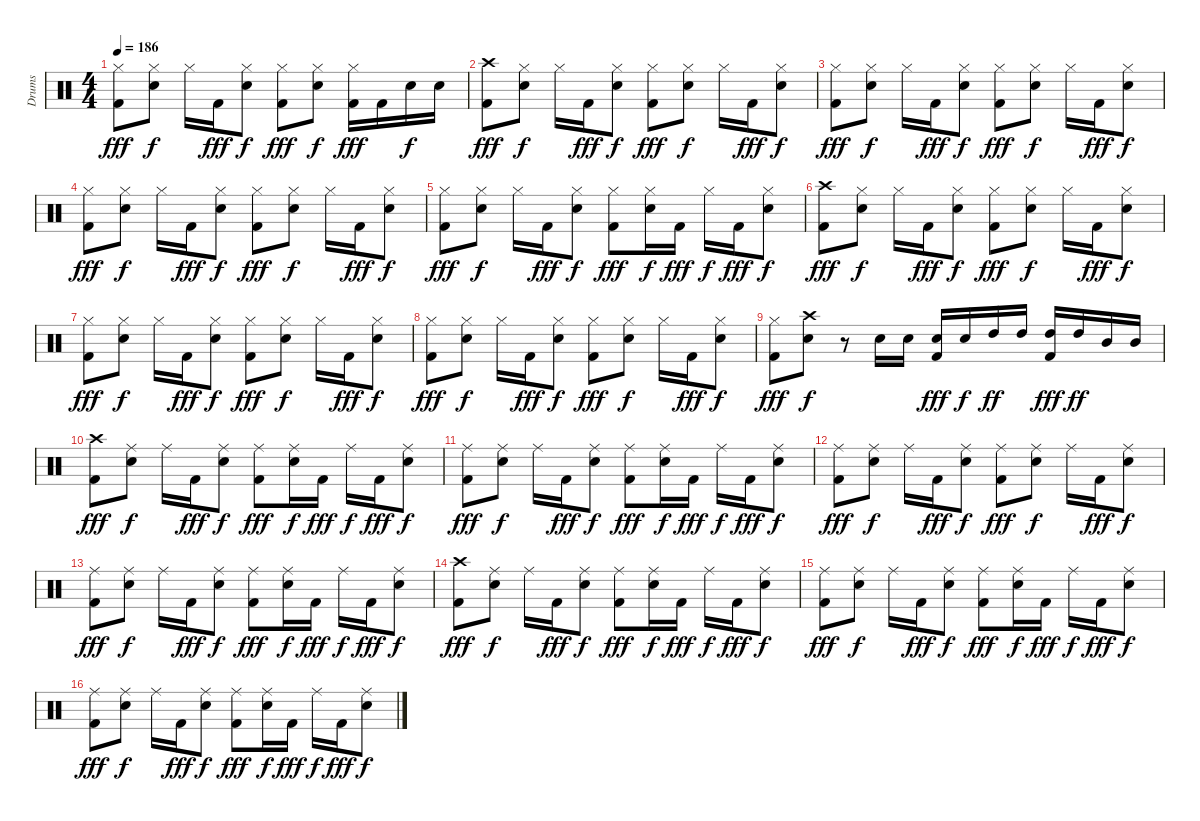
\track ("Drums" "Drums") {instrument percussion}
\staff {score}
\articulation defaults
\ts (4 4)
\tempo 186
\clef neutral
\ks c
("Hi-Hat (closed)" "Kick (hit) 2").8{dy fff} ("Hi-Hat (closed)" "Electric Snare (hit)").8{dy f} "Hi-Hat (closed)".16 "Kick (hit) 2".16{dy fff} ("Hi-Hat (closed)" "Electric Snare (hit)").8{dy f} ("Hi-Hat (closed)" "Kick (hit) 2").8{dy fff} ("Hi-Hat (closed)" "Electric Snare (hit)").8{dy f} ("Hi-Hat (closed)" "Kick (hit) 2").16{dy fff} "Kick (hit) 2".16 "Electric Snare (hit)".16{dy f} "Electric Snare (hit)".16 |
("Crash high (hit)" "Kick (hit) 2").8{dy fff} ("Hi-Hat (closed)" "Electric Snare (hit)").8{dy f} "Hi-Hat (closed)".16 "Kick (hit) 2".16{dy fff} ("Hi-Hat (closed)" "Electric Snare (hit)").8{dy f} ("Hi-Hat (closed)" "Kick (hit) 2").8{dy fff} ("Hi-Hat (closed)" "Electric Snare (hit)").8{dy f} "Hi-Hat (closed)".16 "Kick (hit) 2".16{dy fff} ("Hi-Hat (closed)" "Electric Snare (hit)").8{dy f} |
("Hi-Hat (closed)" "Kick (hit) 2").8{dy fff} ("Hi-Hat (closed)" "Electric Snare (hit)").8{dy f} "Hi-Hat (closed)".16 "Kick (hit) 2".16{dy fff} ("Hi-Hat (closed)" "Electric Snare (hit)").8{dy f} ("Hi-Hat (closed)" "Kick (hit) 2").8{dy fff} ("Hi-Hat (closed)" "Electric Snare (hit)").8{dy f} "Hi-Hat (closed)".16 "Kick (hit) 2".16{dy fff} ("Hi-Hat (closed)" "Electric Snare (hit)").8{dy f} |
("Hi-Hat (closed)" "Kick (hit) 2").8{dy fff} ("Hi-Hat (closed)" "Electric Snare (hit)").8{dy f} "Hi-Hat (closed)".16 "Kick (hit) 2".16{dy fff} ("Hi-Hat (closed)" "Electric Snare (hit)").8{dy f} ("Hi-Hat (closed)" "Kick (hit) 2").8{dy fff} ("Hi-Hat (closed)" "Electric Snare (hit)").8{dy f} "Hi-Hat (closed)".16 "Kick (hit) 2".16{dy fff} ("Hi-Hat (closed)" "Electric Snare (hit)").8{dy f} |
("Hi-Hat (closed)" "Kick (hit) 2").8{dy fff} ("Hi-Hat (closed)" "Electric Snare (hit)").8{dy f} "Hi-Hat (closed)".16 "Kick (hit) 2".16{dy fff} ("Hi-Hat (closed)" "Electric Snare (hit)").8{dy f} ("Hi-Hat (closed)" "Kick (hit) 2").8{dy fff} ("Hi-Hat (closed)" "Electric Snare (hit)").16{dy f} "Kick (hit) 2".16{dy fff} "Hi-Hat (closed)".16{dy f} "Kick (hit) 2".16{dy fff} ("Hi-Hat (closed)" "Electric Snare (hit)").8{dy f} |
("Crash high (hit)" "Kick (hit) 2").8{dy fff} ("Hi-Hat (closed)" "Electric Snare (hit)").8{dy f} "Hi-Hat (closed)".16 "Kick (hit) 2".16{dy fff} ("Hi-Hat (closed)" "Electric Snare (hit)").8{dy f} ("Hi-Hat (closed)" "Kick (hit) 2").8{dy fff} ("Hi-Hat (closed)" "Electric Snare (hit)").8{dy f} "Hi-Hat (closed)".16 "Kick (hit) 2".16{dy fff} ("Hi-Hat (closed)" "Electric Snare (hit)").8{dy f} |
("Hi-Hat (closed)" "Kick (hit) 2").8{dy fff} ("Hi-Hat (closed)" "Electric Snare (hit)").8{dy f} "Hi-Hat (closed)".16 "Kick (hit) 2".16{dy fff} ("Hi-Hat (closed)" "Electric Snare (hit)").8{dy f} ("Hi-Hat (closed)" "Kick (hit) 2").8{dy fff} ("Hi-Hat (closed)" "Electric Snare (hit)").8{dy f} "Hi-Hat (closed)".16 "Kick (hit) 2".16{dy fff} ("Hi-Hat (closed)" "Electric Snare (hit)").8{dy f} |
("Hi-Hat (closed)" "Kick (hit) 2").8{dy fff} ("Hi-Hat (closed)" "Electric Snare (hit)").8{dy f} "Hi-Hat (closed)".16 "Kick (hit) 2".16{dy fff} ("Hi-Hat (closed)" "Electric Snare (hit)").8{dy f} ("Hi-Hat (closed)" "Kick (hit) 2").8{dy fff} ("Hi-Hat (closed)" "Electric Snare (hit)").8{dy f} "Hi-Hat (closed)".16 "Kick (hit) 2".16{dy fff} ("Hi-Hat (closed)" "Electric Snare (hit)").8{dy f} |
("Hi-Hat (closed)" "Kick (hit) 2").8{dy fff} ("Crash high (hit)" "Electric Snare (hit)").8{dy f} r.8 "Electric Snare (hit)".16 "Electric Snare (hit)".16 ("Electric Snare (hit)" "Kick (hit) 2").16{dy fff} "Electric Snare (hit)".16{dy f} "High Tom (hit)".16{dy ff} "High Tom (hit)".16 ("High Tom (hit)" "Kick (hit) 2").16{dy fff} "High Tom (hit)".16{dy ff} "Mid Tom (hit)".16 "Mid Tom (hit)".16 |
("Crash high (hit)" "Kick (hit) 2").8{dy fff} ("Ride (middle)" "Electric Snare (hit)").8{dy f} "Ride (middle)".16 "Kick (hit) 2".16{dy fff} ("Ride (middle)" "Electric Snare (hit)").8{dy f} ("Ride (middle)" "Kick (hit) 2").8{dy fff} ("Ride (middle)" "Electric Snare (hit)").16{dy f} "Kick (hit) 2".16{dy fff} "Ride (middle)".16{dy f} "Kick (hit) 2".16{dy fff} ("Ride (middle)" "Electric Snare (hit)").8{dy f} |
("Ride (middle)" "Kick (hit) 2").8{dy fff} ("Ride (middle)" "Electric Snare (hit)").8{dy f} "Ride (middle)".16 "Kick (hit) 2".16{dy fff} ("Ride (middle)" "Electric Snare (hit)").8{dy f} ("Ride (middle)" "Kick (hit) 2").8{dy fff} ("Ride (middle)" "Electric Snare (hit)").16{dy f} "Kick (hit) 2".16{dy fff} "Ride (middle)".16{dy f} "Kick (hit) 2".16{dy fff} ("Ride (middle)" "Electric Snare (hit)").8{dy f} |
("Ride (middle)" "Kick (hit) 2").8{dy fff} ("Ride (middle)" "Electric Snare (hit)").8{dy f} "Ride (middle)".16 "Kick (hit) 2".16{dy fff} ("Ride (middle)" "Electric Snare (hit)").8{dy f} ("Ride (middle)" "Kick (hit) 2").8{dy fff} ("Ride (middle)" "Electric Snare (hit)").8{dy f} "Ride (middle)".16 "Kick (hit) 2".16{dy fff} ("Ride (middle)" "Electric Snare (hit)").8{dy f} |
("Ride (middle)" "Kick (hit) 2").8{dy fff} ("Ride (middle)" "Electric Snare (hit)").8{dy f} "Ride (middle)".16 "Kick (hit) 2".16{dy fff} ("Ride (middle)" "Electric Snare (hit)").8{dy f} ("Ride (middle)" "Kick (hit) 2").8{dy fff} ("Ride (middle)" "Electric Snare (hit)").16{dy f} "Kick (hit) 2".16{dy fff} "Ride (middle)".16{dy f} "Kick (hit) 2".16{dy fff} ("Ride (middle)" "Electric Snare (hit)").8{dy f} |
("Crash high (hit)" "Kick (hit) 2").8{dy fff} ("Ride (middle)" "Electric Snare (hit)").8{dy f} "Ride (middle)".16 "Kick (hit) 2".16{dy fff} ("Ride (middle)" "Electric Snare (hit)").8{dy f} ("Ride (middle)" "Kick (hit) 2").8{dy fff} ("Ride (middle)" "Electric Snare (hit)").16{dy f} "Kick (hit) 2".16{dy fff} "Ride (middle)".16{dy f} "Kick (hit) 2".16{dy fff} ("Ride (middle)" "Electric Snare (hit)").8{dy f} |
("Ride (middle)" "Kick (hit) 2").8{dy fff} ("Ride (middle)" "Electric Snare (hit)").8{dy f} "Ride (middle)".16 "Kick (hit) 2".16{dy fff} ("Ride (middle)" "Electric Snare (hit)").8{dy f} ("Ride (middle)" "Kick (hit) 2").8{dy fff} ("Ride (middle)" "Electric Snare (hit)").16{dy f} "Kick (hit) 2".16{dy fff} "Ride (middle)".16{dy f} "Kick (hit) 2".16{dy fff} ("Ride (middle)" "Electric Snare (hit)").8{dy f} |
("Ride (middle)" "Kick (hit) 2").8{dy fff} ("Ride (middle)" "Electric Snare (hit)").8{dy f} "Ride (middle)".16 "Kick (hit) 2".16{dy fff} ("Ride (middle)" "Electric Snare (hit)").8{dy f} ("Ride (middle)" "Kick (hit) 2").8{dy fff} ("Ride (middle)" "Electric Snare (hit)").16{dy f} "Kick (hit) 2".16{dy fff} "Ride (middle)".16{dy f} "Kick (hit) 2".16{dy fff} ("Ride (middle)" "Electric Snare (hit)").8{dy f}
